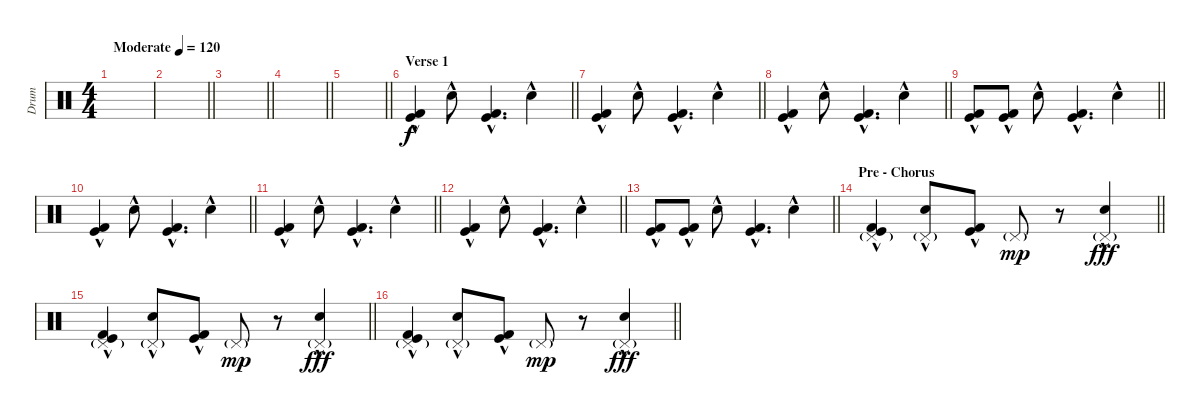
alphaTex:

\track ("Drum" "Drum") {instrument percussion}
\staff {score}
\articulation defaults
\ts (4 4)
\tempo (120 "Moderate")
\clef neutral
\ks c
|
\barLineRight lightlight
|
\barLineRight lightlight
|
\barLineRight lightlight
|
\barLineRight lightlight
|
\section ("" "Verse 1")
\barLineRight lightlight
("Kick (hit) 2"{hac} "Kick (hit)"{hac}).4 "Snare (hit) 2"{hac}.8 ("Kick (hit) 2"{hac} "Kick (hit)"{hac}).4{d} "Snare (hit) 2"{hac}.4 |
\barLineRight lightlight
("Kick (hit) 2"{hac} "Kick (hit)"{hac}).4 "Snare (hit) 2"{hac}.8 ("Kick (hit) 2"{hac} "Kick (hit)"{hac}).4{d} "Snare (hit) 2"{hac}.4 |
\barLineRight lightlight
("Kick (hit) 2"{hac} "Kick (hit)"{hac}).4 "Snare (hit) 2"{hac}.8 ("Kick (hit) 2"{hac} "Kick (hit)"{hac}).4{d} "Snare (hit) 2"{hac}.4 |
\barLineRight lightlight
("Kick (hit) 2"{hac} "Kick (hit)"{hac}).8 ("Kick (hit) 2"{hac} "Kick (hit)"{hac}).8 "Snare (hit) 2"{hac}.8 ("Kick (hit) 2"{hac} "Kick (hit)"{hac}).4{d} "Snare (hit) 2"{hac}.4 |
\barLineRight lightlight
("Kick (hit) 2"{hac} "Kick (hit)"{hac}).4 "Snare (hit) 2"{hac}.8 ("Kick (hit) 2"{hac} "Kick (hit)"{hac}).4{d} "Snare (hit) 2"{hac}.4 |
\barLineRight lightlight
("Kick (hit) 2"{hac} "Kick (hit)"{hac}).4 "Snare (hit) 2"{hac}.8 ("Kick (hit) 2"{hac} "Kick (hit)"{hac}).4{d} "Snare (hit) 2"{hac}.4 |
\barLineRight lightlight
("Kick (hit) 2"{hac} "Kick (hit)"{hac}).4 "Snare (hit) 2"{hac}.8 ("Kick (hit) 2"{hac} "Kick (hit)"{hac}).4{d} "Snare (hit) 2"{hac}.4 |
\barLineRight lightlight
("Kick (hit) 2"{hac} "Kick (hit)"{hac}).8 ("Kick (hit) 2"{hac} "Kick (hit)"{hac}).8 "Snare (hit) 2"{hac}.8 ("Kick (hit) 2"{hac} "Kick (hit)"{hac}).4{d} "Snare (hit) 2"{hac}.4 |
\section ("" "Pre - Chorus")
\barLineRight lightlight
("Pedal Hi-Hat (hit)"{g} "Kick (hit) 2"{hac} "Kick (hit)"{hac}).4 ("Pedal Hi-Hat (hit)"{g} "Snare (hit) 2"{hac}).8 ("Kick (hit) 2"{hac} "Kick (hit)"{hac}).8 "Pedal Hi-Hat (hit)"{g}.8{dy mp} r.8 ("Pedal Hi-Hat (hit)"{g} "Snare (hit) 2"{hac}).4{dy fff} |
\barLineRight lightlight
("Pedal Hi-Hat (hit)"{g} "Kick (hit) 2"{hac} "Kick (hit)"{hac}).4 ("Pedal Hi-Hat (hit)"{g} "Snare (hit) 2"{hac}).8 ("Kick (hit) 2"{hac} "Kick (hit)"{hac}).8 "Pedal Hi-Hat (hit)"{g}.8{dy mp} r.8 ("Pedal Hi-Hat (hit)"{g} "Snare (hit) 2"{hac}).4{dy fff} |
\barLineRight lightlight
("Pedal Hi-Hat (hit)"{g} "Kick (hit) 2"{hac} "Kick (hit)"{hac}).4 ("Pedal Hi-Hat (hit)"{g} "Snare (hit) 2"{hac}).8 ("Kick (hit) 2"{hac} "Kick (hit)"{hac}).8 "Pedal Hi-Hat (hit)"{g}.8{dy mp} r.8 ("Pedal Hi-Hat (hit)"{g} "Snare (hit) 2"{hac}).4{dy fff}
